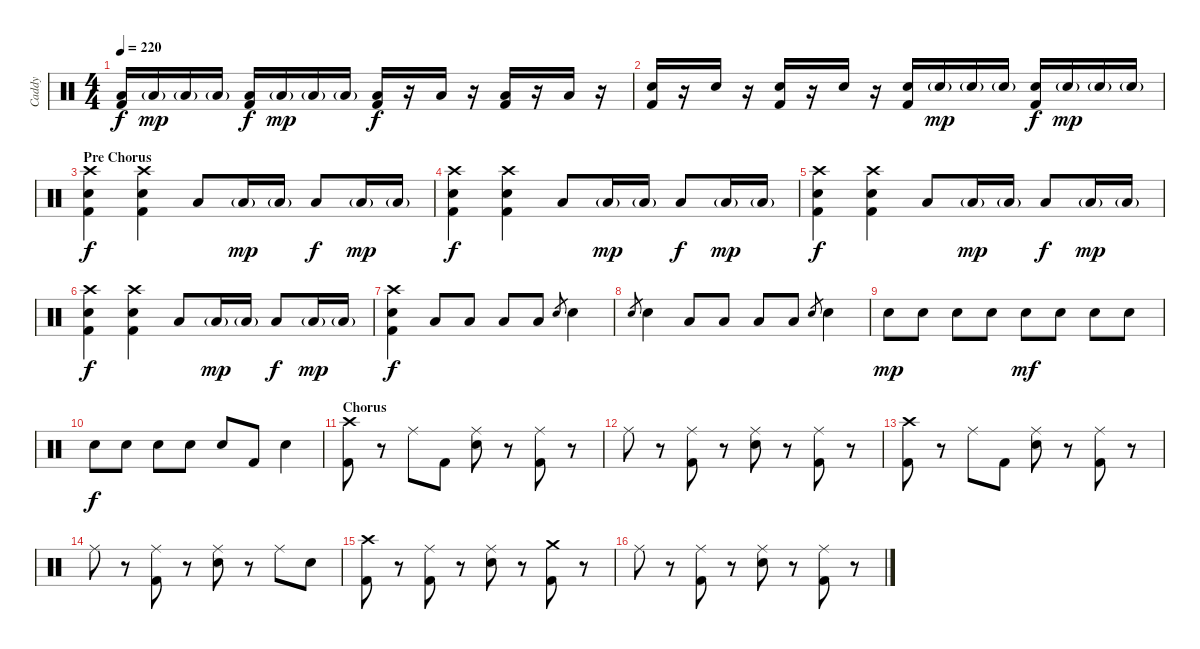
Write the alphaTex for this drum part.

\track ("Caddy" "Caddy") {instrument percussion}
\staff {score}
\articulation defaults
\ts (4 4)
\tempo 220
\clef neutral
\ks c
("Low Floor Tom (hit)" "Kick (hit) 2").16{dy f} "Low Floor Tom (hit)"{g}.16{dy mp} "Low Floor Tom (hit)"{g}.16 "Low Floor Tom (hit)"{g}.16 ("Low Floor Tom (hit)" "Kick (hit) 2").16{dy f} "Low Floor Tom (hit)"{g}.16{dy mp} "Low Floor Tom (hit)"{g}.16 "Low Floor Tom (hit)"{g}.16 ("Low Floor Tom (hit)" "Kick (hit) 2").16{dy f} r.16 "Low Floor Tom (hit)".16 r.16 ("Low Floor Tom (hit)" "Kick (hit) 2").16 r.16 "Low Floor Tom (hit)".16 r.16 |
("Electric Snare (hit)" "Kick (hit) 2").16 r.16 "Electric Snare (hit)".16 r.16 ("Electric Snare (hit)" "Kick (hit) 2").16 r.16 "Electric Snare (hit)".16 r.16 ("Electric Snare (hit)" "Kick (hit) 2").16 "Electric Snare (hit)"{g}.16{dy mp} "Electric Snare (hit)"{g}.16 "Electric Snare (hit)"{g}.16 ("Electric Snare (hit)" "Kick (hit) 2").16{dy f} "Electric Snare (hit)"{g}.16{dy mp} "Electric Snare (hit)"{g}.16 "Electric Snare (hit)"{g}.16 |
\section ("" "Pre Chorus")
("Crash high (hit)" "Electric Snare (hit)" "Kick (hit) 2").4{dy f} ("Crash high (hit)" "Electric Snare (hit)" "Kick (hit) 2").4 "Low Floor Tom (hit)".8 "Low Floor Tom (hit)"{g}.16{dy mp} "Low Floor Tom (hit)"{g}.16 "Low Floor Tom (hit)".8{dy f} "Low Floor Tom (hit)"{g}.16{dy mp} "Low Floor Tom (hit)"{g}.16 |
("Crash high (hit)" "Electric Snare (hit)" "Kick (hit) 2").4{dy f} ("Crash high (hit)" "Electric Snare (hit)" "Kick (hit) 2").4 "Low Floor Tom (hit)".8 "Low Floor Tom (hit)"{g}.16{dy mp} "Low Floor Tom (hit)"{g}.16 "Low Floor Tom (hit)".8{dy f} "Low Floor Tom (hit)"{g}.16{dy mp} "Low Floor Tom (hit)"{g}.16 |
("Crash high (hit)" "Electric Snare (hit)" "Kick (hit) 2").4{dy f} ("Crash high (hit)" "Electric Snare (hit)" "Kick (hit) 2").4 "Low Floor Tom (hit)".8 "Low Floor Tom (hit)"{g}.16{dy mp} "Low Floor Tom (hit)"{g}.16 "Low Floor Tom (hit)".8{dy f} "Low Floor Tom (hit)"{g}.16{dy mp} "Low Floor Tom (hit)"{g}.16 |
("Crash high (hit)" "Electric Snare (hit)" "Kick (hit) 2").4{dy f} ("Crash high (hit)" "Electric Snare (hit)" "Kick (hit) 2").4 "Low Floor Tom (hit)".8 "Low Floor Tom (hit)"{g}.16{dy mp} "Low Floor Tom (hit)"{g}.16 "Low Floor Tom (hit)".8{dy f} "Low Floor Tom (hit)"{g}.16{dy mp} "Low Floor Tom (hit)"{g}.16 |
("Crash high (hit)" "Electric Snare (hit)" "Kick (hit) 2").4{dy f} "Low Floor Tom (hit)".8 "Low Floor Tom (hit)".8 "Low Floor Tom (hit)".8 "Low Floor Tom (hit)".8 "Electric Snare (hit)".8{gr} "Electric Snare (hit)".4 |
"Electric Snare (hit)".8{gr} "Electric Snare (hit)".4 "Low Floor Tom (hit)".8 "Low Floor Tom (hit)".8 "Low Floor Tom (hit)".8 "Low Floor Tom (hit)".8 "Electric Snare (hit)".8{gr} "Electric Snare (hit)".4 |
"Electric Snare (hit)".8{dy mp} "Electric Snare (hit)".8 "Electric Snare (hit)".8 "Electric Snare (hit)".8 "Electric Snare (hit)".8{dy mf} "Electric Snare (hit)".8 "Electric Snare (hit)".8 "Electric Snare (hit)".8 |
"Electric Snare (hit)".8{dy f} "Electric Snare (hit)".8 "Electric Snare (hit)".8 "Electric Snare (hit)".8 "Electric Snare (hit)".8 "Kick (hit) 2".8 "Electric Snare (hit)".4 |
\section ("" "Chorus")
("Crash high (hit)" "Kick (hit) 2").8 r.8 "Ride (middle)".8 "Kick (hit) 2".8 ("Ride (middle)" "Electric Snare (hit)").8 r.8 ("Ride (middle)" "Kick (hit) 2").8 r.8 |
"Ride (middle)".8 r.8 ("Ride (middle)" "Kick (hit) 2").8 r.8 ("Ride (middle)" "Electric Snare (hit)").8 r.8 ("Ride (middle)" "Kick (hit) 2").8 r.8 |
("Crash high (hit)" "Kick (hit) 2").8 r.8 "Ride (middle)".8 "Kick (hit) 2".8 ("Ride (middle)" "Electric Snare (hit)").8 r.8 ("Ride (middle)" "Kick (hit) 2").8 r.8 |
"Ride (middle)".8 r.8 ("Ride (middle)" "Kick (hit) 2").8 r.8 ("Ride (middle)" "Electric Snare (hit)").8 r.8 "Ride (middle)".8 "Electric Snare (hit)".8 |
("Crash high (hit)" "Kick (hit) 2").8 r.8 ("Ride (middle)" "Kick (hit) 2").8 r.8 ("Ride (middle)" "Electric Snare (hit)").8 r.8 ("Crash medium (hit)" "Kick (hit) 2").8 r.8 |
"Ride (middle)".8 r.8 ("Ride (middle)" "Kick (hit) 2").8 r.8 ("Ride (middle)" "Electric Snare (hit)").8 r.8 ("Ride (middle)" "Kick (hit) 2").8 r.8
